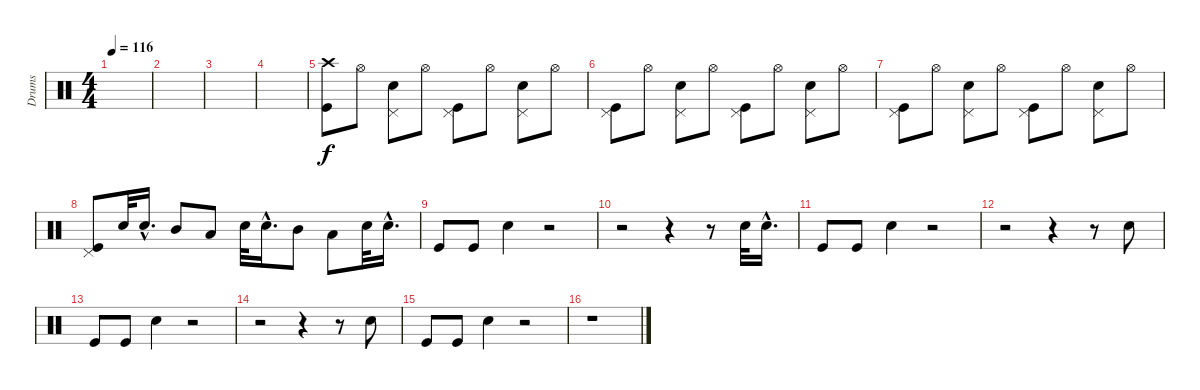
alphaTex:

\track ("Drums" "Drums") {instrument percussion}
\staff {score}
\articulation defaults
\ts (4 4)
\tempo 116
\clef neutral
\ks c
|
|
|
|
("Crash high (hit)" "Kick (hit)").8 "Hi-Hat (open)".8 ("Pedal Hi-Hat (hit)" "Electric Snare (hit)").8 "Hi-Hat (open)".8 ("Pedal Hi-Hat (hit)" "Kick (hit)").8 "Hi-Hat (open)".8 ("Pedal Hi-Hat (hit)" "Electric Snare (hit)").8 "Hi-Hat (open)".8 |
("Pedal Hi-Hat (hit)" "Kick (hit)").8 "Hi-Hat (open)".8 ("Pedal Hi-Hat (hit)" "Electric Snare (hit)").8 "Hi-Hat (open)".8 ("Pedal Hi-Hat (hit)" "Kick (hit)").8 "Hi-Hat (open)".8 ("Pedal Hi-Hat (hit)" "Electric Snare (hit)").8 "Hi-Hat (open)".8 |
("Pedal Hi-Hat (hit)" "Kick (hit)").8 "Hi-Hat (open)".8 ("Pedal Hi-Hat (hit)" "Electric Snare (hit)").8 "Hi-Hat (open)".8 ("Pedal Hi-Hat (hit)" "Kick (hit)").8 "Hi-Hat (open)".8 ("Pedal Hi-Hat (hit)" "Electric Snare (hit)").8 "Hi-Hat (open)".8 |
("Pedal Hi-Hat (hit)" "Kick (hit)").8 "Electric Snare (hit)".32 "Electric Snare (hit)"{hac}.16{d} "Mid Tom (hit)".8 "Low Tom (hit)".8 "Electric Snare (hit)".32 "Electric Snare (hit)"{hac}.16{d} "Mid Tom (hit)".8 "Low Tom (hit)".8 "Electric Snare (hit)".32 "Electric Snare (hit)"{hac}.16{d} |
"Kick (hit)".8 "Kick (hit)".8 "Electric Snare (hit)".4 r.2 |
r.2 r.4 r.8 "Electric Snare (hit)".32 "Electric Snare (hit)"{hac}.16{d} |
"Kick (hit)".8 "Kick (hit)".8 "Electric Snare (hit)".4 r.2 |
r.2 r.4 r.8 "Electric Snare (hit)".8 |
"Kick (hit)".8 "Kick (hit)".8 "Electric Snare (hit)".4 r.2 |
r.2 r.4 r.8 "Electric Snare (hit)".8 |
"Kick (hit)".8 "Kick (hit)".8 "Electric Snare (hit)".4 r.2 |
r.1
